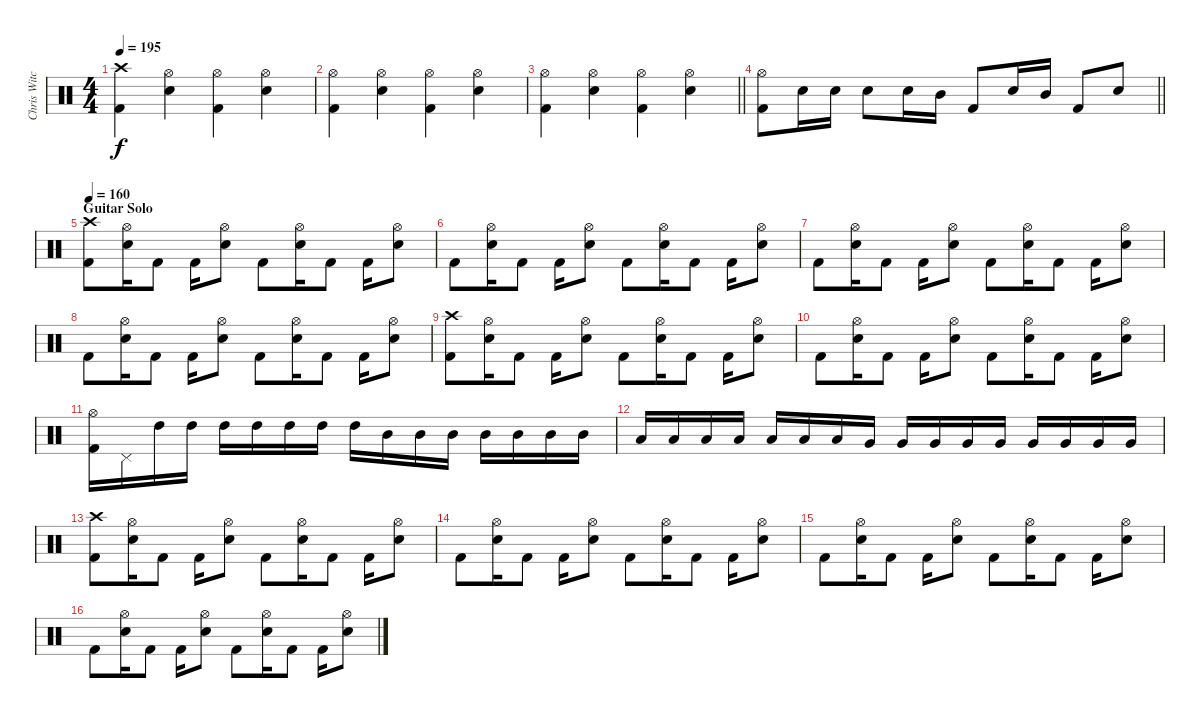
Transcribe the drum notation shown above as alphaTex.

\track ("Chris Witchunter" "Chris Witc") {instrument percussion}
\staff {score}
\articulation defaults
\ts (4 4)
\tempo 195
\clef neutral
\ks c
("Crash high (hit)" "Kick (hit) 2").4{dy f} ("Hi-Hat (open)" "Snare (hit) 2").4 ("Hi-Hat (open)" "Kick (hit) 2").4 ("Hi-Hat (open)" "Snare (hit) 2").4 |
("Hi-Hat (open)" "Kick (hit) 2").4 ("Hi-Hat (open)" "Snare (hit) 2").4 ("Hi-Hat (open)" "Kick (hit) 2").4 ("Hi-Hat (open)" "Snare (hit) 2").4 |
\barLineRight lightlight
("Hi-Hat (open)" "Kick (hit) 2").4 ("Hi-Hat (open)" "Snare (hit) 2").4 ("Hi-Hat (open)" "Kick (hit) 2").4 ("Hi-Hat (open)" "Snare (hit) 2").4 |
\barLineRight lightlight
("Hi-Hat (open)" "Kick (hit) 2").8 "Snare (hit) 2".16 "Snare (hit) 2".16 "Snare (hit) 2".8 "Snare (hit) 2".16 "Mid Tom (hit)".16 "Kick (hit) 2".8 "Snare (hit) 2".16 "Mid Tom (hit)".16 "Kick (hit) 2".8 "Snare (hit) 2".8 |
\section ("" "Guitar Solo")
\tempo 160
("Crash high (hit)" "Kick (hit) 2").8 ("Hi-Hat (open)" "Snare (hit) 2").16 "Kick (hit) 2".8 "Kick (hit) 2".16 ("Hi-Hat (open)" "Snare (hit) 2").8 "Kick (hit) 2".8 ("Hi-Hat (open)" "Snare (hit) 2").16 "Kick (hit) 2".8 "Kick (hit) 2".16 ("Hi-Hat (open)" "Snare (hit) 2").8 |
"Kick (hit) 2".8 ("Hi-Hat (open)" "Snare (hit) 2").16 "Kick (hit) 2".8 "Kick (hit) 2".16 ("Hi-Hat (open)" "Snare (hit) 2").8 "Kick (hit) 2".8 ("Hi-Hat (open)" "Snare (hit) 2").16 "Kick (hit) 2".8 "Kick (hit) 2".16 ("Hi-Hat (open)" "Snare (hit) 2").8 |
"Kick (hit) 2".8 ("Hi-Hat (open)" "Snare (hit) 2").16 "Kick (hit) 2".8 "Kick (hit) 2".16 ("Hi-Hat (open)" "Snare (hit) 2").8 "Kick (hit) 2".8 ("Hi-Hat (open)" "Snare (hit) 2").16 "Kick (hit) 2".8 "Kick (hit) 2".16 ("Hi-Hat (open)" "Snare (hit) 2").8 |
"Kick (hit) 2".8 ("Hi-Hat (open)" "Snare (hit) 2").16 "Kick (hit) 2".8 "Kick (hit) 2".16 ("Hi-Hat (open)" "Snare (hit) 2").8 "Kick (hit) 2".8 ("Hi-Hat (open)" "Snare (hit) 2").16 "Kick (hit) 2".8 "Kick (hit) 2".16 ("Hi-Hat (open)" "Snare (hit) 2").8 |
("Crash high (hit)" "Kick (hit) 2").8 ("Hi-Hat (open)" "Snare (hit) 2").16 "Kick (hit) 2".8 "Kick (hit) 2".16 ("Hi-Hat (open)" "Snare (hit) 2").8 "Kick (hit) 2".8 ("Hi-Hat (open)" "Snare (hit) 2").16 "Kick (hit) 2".8 "Kick (hit) 2".16 ("Hi-Hat (open)" "Snare (hit) 2").8 |
"Kick (hit) 2".8 ("Hi-Hat (open)" "Snare (hit) 2").16 "Kick (hit) 2".8 "Kick (hit) 2".16 ("Hi-Hat (open)" "Snare (hit) 2").8 "Kick (hit) 2".8 ("Hi-Hat (open)" "Snare (hit) 2").16 "Kick (hit) 2".8 "Kick (hit) 2".16 ("Hi-Hat (open)" "Snare (hit) 2").8 |
("Hi-Hat (open)" "Kick (hit) 2").16 "Pedal Hi-Hat (hit)".16 "High Tom (hit)".16 "High Tom (hit)".16 "High Tom (hit)".16 "High Tom (hit)".16 "High Tom (hit)".16 "High Tom (hit)".16 "High Tom (hit)".16 "Mid Tom (hit)".16 "Mid Tom (hit)".16 "Mid Tom (hit)".16 "Mid Tom (hit)".16 "Mid Tom (hit)".16 "Mid Tom (hit)".16 "Mid Tom (hit)".16 |
"Low Tom (hit)".16 "Low Tom (hit)".16 "Low Tom (hit)".16 "Low Tom (hit)".16 "Low Tom (hit)".16 "Low Tom (hit)".16 "Low Tom (hit)".16 "Very Low Tom (hit)".16 "Very Low Tom (hit)".16 "Very Low Tom (hit)".16 "Very Low Tom (hit)".16 "Very Low Tom (hit)".16 "Very Low Tom (hit)".16 "Very Low Tom (hit)".16 "Very Low Tom (hit)".16 "Very Low Tom (hit)".16 |
("Crash high (hit)" "Kick (hit) 2").8 ("Hi-Hat (open)" "Snare (hit) 2").16 "Kick (hit) 2".8 "Kick (hit) 2".16 ("Hi-Hat (open)" "Snare (hit) 2").8 "Kick (hit) 2".8 ("Hi-Hat (open)" "Snare (hit) 2").16 "Kick (hit) 2".8 "Kick (hit) 2".16 ("Hi-Hat (open)" "Snare (hit) 2").8 |
"Kick (hit) 2".8 ("Hi-Hat (open)" "Snare (hit) 2").16 "Kick (hit) 2".8 "Kick (hit) 2".16 ("Hi-Hat (open)" "Snare (hit) 2").8 "Kick (hit) 2".8 ("Hi-Hat (open)" "Snare (hit) 2").16 "Kick (hit) 2".8 "Kick (hit) 2".16 ("Hi-Hat (open)" "Snare (hit) 2").8 |
"Kick (hit) 2".8 ("Hi-Hat (open)" "Snare (hit) 2").16 "Kick (hit) 2".8 "Kick (hit) 2".16 ("Hi-Hat (open)" "Snare (hit) 2").8 "Kick (hit) 2".8 ("Hi-Hat (open)" "Snare (hit) 2").16 "Kick (hit) 2".8 "Kick (hit) 2".16 ("Hi-Hat (open)" "Snare (hit) 2").8 |
"Kick (hit) 2".8 ("Hi-Hat (open)" "Snare (hit) 2").16 "Kick (hit) 2".8 "Kick (hit) 2".16 ("Hi-Hat (open)" "Snare (hit) 2").8 "Kick (hit) 2".8 ("Hi-Hat (open)" "Snare (hit) 2").16 "Kick (hit) 2".8 "Kick (hit) 2".16 ("Hi-Hat (open)" "Snare (hit) 2").8
